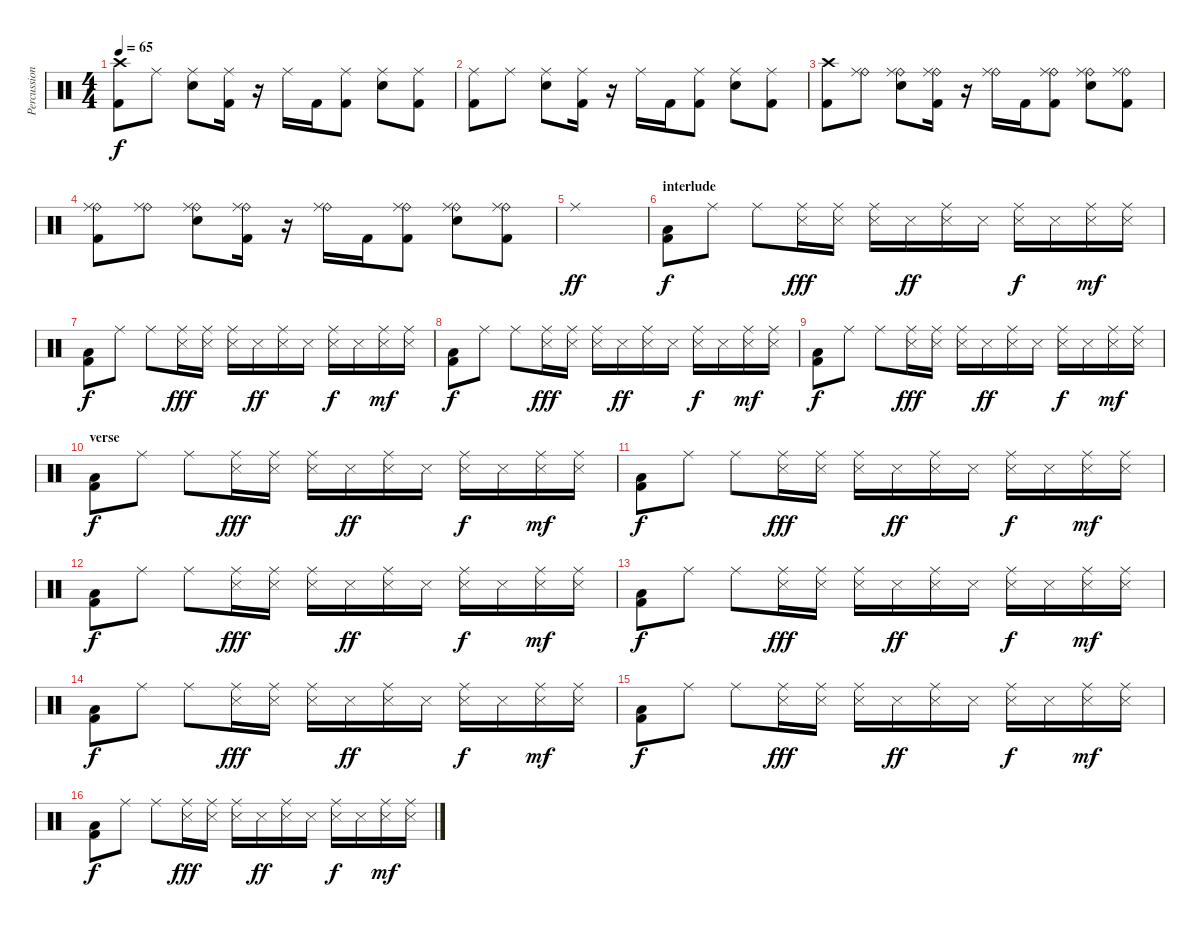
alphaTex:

\track ("Percussion" "Percussion") {instrument percussion}
\staff {score}
\articulation defaults
\ts (4 4)
\tempo 65
\clef neutral
\ks c
("Crash high (hit)" "Kick (hit) 2").8{dy f} "Ride (middle)".8 ("Ride (middle)" "Electric Snare (hit)").8 ("Ride (middle)" "Kick (hit) 2").16 r.16 "Ride (middle)".16 "Kick (hit) 2".16 ("Ride (middle)" "Kick (hit) 2").8 ("Ride (middle)" "Electric Snare (hit)").8 ("Ride (middle)" "Kick (hit) 2").8 |
("Ride (middle)" "Kick (hit) 2").8 "Ride (middle)".8 ("Ride (middle)" "Electric Snare (hit)").8 ("Ride (middle)" "Kick (hit) 2").16 r.16 "Ride (middle)".16 "Kick (hit) 2".16 ("Ride (middle)" "Kick (hit) 2").8 ("Ride (middle)" "Electric Snare (hit)").8 ("Ride (middle)" "Kick (hit) 2").8 |
("Crash high (hit)" "Kick (hit) 2").8 ("Ride (bell)" "Ride (middle)").8 ("Ride (bell)" "Ride (middle)" "Electric Snare (hit)").8 ("Ride (bell)" "Ride (middle)" "Kick (hit) 2").16 r.16 ("Ride (bell)" "Ride (middle)").16 "Kick (hit) 2".16 ("Ride (bell)" "Ride (middle)" "Kick (hit) 2").8 ("Ride (bell)" "Ride (middle)" "Electric Snare (hit)").8 ("Ride (bell)" "Ride (middle)" "Kick (hit) 2").8 |
("Ride (bell)" "Ride (middle)" "Kick (hit) 2").8 ("Ride (bell)" "Ride (middle)").8 ("Ride (bell)" "Ride (middle)" "Electric Snare (hit)").8 ("Ride (bell)" "Ride (middle)" "Kick (hit) 2").16 r.16 ("Ride (bell)" "Ride (middle)").16 "Kick (hit) 2".16 ("Ride (bell)" "Ride (middle)" "Kick (hit) 2").8 ("Ride (bell)" "Ride (middle)" "Electric Snare (hit)").8 ("Ride (bell)" "Ride (middle)" "Kick (hit) 2").8 |
"Ride (middle)".1{dy ff} |
\section ("" "interlude")
("Kick (hit) 2" "Low Floor Tom (hit)").8{dy f volume 11} "Ride (middle)".8 "Ride (middle)".8 ("Ride (middle)" "Snare (side stick) 3").16{dy fff} ("Ride (middle)" "Snare (side stick) 3").16 ("Ride (middle)" "Snare (side stick) 3").16 "Snare (side stick) 3".16{dy ff} ("Ride (middle)" "Snare (side stick) 3").16 "Snare (side stick) 3".16 ("Ride (middle)" "Snare (side stick) 3").16{dy f} "Snare (side stick) 3".16 ("Ride (middle)" "Snare (side stick) 3").16{dy mf} ("Ride (middle)" "Snare (side stick) 3").16 |
("Kick (hit) 2" "Low Floor Tom (hit)").8{dy f} "Ride (middle)".8 "Ride (middle)".8 ("Ride (middle)" "Snare (side stick) 3").16{dy fff} ("Ride (middle)" "Snare (side stick) 3").16 ("Ride (middle)" "Snare (side stick) 3").16 "Snare (side stick) 3".16{dy ff} ("Ride (middle)" "Snare (side stick) 3").16 "Snare (side stick) 3".16 ("Ride (middle)" "Snare (side stick) 3").16{dy f} "Snare (side stick) 3".16 ("Ride (middle)" "Snare (side stick) 3").16{dy mf} ("Ride (middle)" "Snare (side stick) 3").16 |
("Kick (hit) 2" "Low Floor Tom (hit)").8{dy f} "Ride (middle)".8 "Ride (middle)".8 ("Ride (middle)" "Snare (side stick) 3").16{dy fff} ("Ride (middle)" "Snare (side stick) 3").16 ("Ride (middle)" "Snare (side stick) 3").16 "Snare (side stick) 3".16{dy ff} ("Ride (middle)" "Snare (side stick) 3").16 "Snare (side stick) 3".16 ("Ride (middle)" "Snare (side stick) 3").16{dy f} "Snare (side stick) 3".16 ("Ride (middle)" "Snare (side stick) 3").16{dy mf} ("Ride (middle)" "Snare (side stick) 3").16 |
("Kick (hit) 2" "Low Floor Tom (hit)").8{dy f} "Ride (middle)".8 "Ride (middle)".8 ("Ride (middle)" "Snare (side stick) 3").16{dy fff} ("Ride (middle)" "Snare (side stick) 3").16 ("Ride (middle)" "Snare (side stick) 3").16 "Snare (side stick) 3".16{dy ff} ("Ride (middle)" "Snare (side stick) 3").16 "Snare (side stick) 3".16 ("Ride (middle)" "Snare (side stick) 3").16{dy f} "Snare (side stick) 3".16 ("Ride (middle)" "Snare (side stick) 3").16{dy mf} ("Ride (middle)" "Snare (side stick) 3").16 |
\section ("" "verse")
("Kick (hit) 2" "Low Floor Tom (hit)").8{dy f} "Ride (middle)".8 "Ride (middle)".8 ("Ride (middle)" "Snare (side stick) 3").16{dy fff} ("Ride (middle)" "Snare (side stick) 3").16 ("Ride (middle)" "Snare (side stick) 3").16 "Snare (side stick) 3".16{dy ff} ("Ride (middle)" "Snare (side stick) 3").16 "Snare (side stick) 3".16 ("Ride (middle)" "Snare (side stick) 3").16{dy f} "Snare (side stick) 3".16 ("Ride (middle)" "Snare (side stick) 3").16{dy mf} ("Ride (middle)" "Snare (side stick) 3").16 |
("Kick (hit) 2" "Low Floor Tom (hit)").8{dy f} "Ride (middle)".8 "Ride (middle)".8 ("Ride (middle)" "Snare (side stick) 3").16{dy fff} ("Ride (middle)" "Snare (side stick) 3").16 ("Ride (middle)" "Snare (side stick) 3").16 "Snare (side stick) 3".16{dy ff} ("Ride (middle)" "Snare (side stick) 3").16 "Snare (side stick) 3".16 ("Ride (middle)" "Snare (side stick) 3").16{dy f} "Snare (side stick) 3".16 ("Ride (middle)" "Snare (side stick) 3").16{dy mf} ("Ride (middle)" "Snare (side stick) 3").16 |
("Kick (hit) 2" "Low Floor Tom (hit)").8{dy f} "Ride (middle)".8 "Ride (middle)".8 ("Ride (middle)" "Snare (side stick) 3").16{dy fff} ("Ride (middle)" "Snare (side stick) 3").16 ("Ride (middle)" "Snare (side stick) 3").16 "Snare (side stick) 3".16{dy ff} ("Ride (middle)" "Snare (side stick) 3").16 "Snare (side stick) 3".16 ("Ride (middle)" "Snare (side stick) 3").16{dy f} "Snare (side stick) 3".16 ("Ride (middle)" "Snare (side stick) 3").16{dy mf} ("Ride (middle)" "Snare (side stick) 3").16 |
("Kick (hit) 2" "Low Floor Tom (hit)").8{dy f} "Ride (middle)".8 "Ride (middle)".8 ("Ride (middle)" "Snare (side stick) 3").16{dy fff} ("Ride (middle)" "Snare (side stick) 3").16 ("Ride (middle)" "Snare (side stick) 3").16 "Snare (side stick) 3".16{dy ff} ("Ride (middle)" "Snare (side stick) 3").16 "Snare (side stick) 3".16 ("Ride (middle)" "Snare (side stick) 3").16{dy f} "Snare (side stick) 3".16 ("Ride (middle)" "Snare (side stick) 3").16{dy mf} ("Ride (middle)" "Snare (side stick) 3").16 |
("Kick (hit) 2" "Low Floor Tom (hit)").8{dy f} "Ride (middle)".8 "Ride (middle)".8 ("Ride (middle)" "Snare (side stick) 3").16{dy fff} ("Ride (middle)" "Snare (side stick) 3").16 ("Ride (middle)" "Snare (side stick) 3").16 "Snare (side stick) 3".16{dy ff} ("Ride (middle)" "Snare (side stick) 3").16 "Snare (side stick) 3".16 ("Ride (middle)" "Snare (side stick) 3").16{dy f} "Snare (side stick) 3".16 ("Ride (middle)" "Snare (side stick) 3").16{dy mf} ("Ride (middle)" "Snare (side stick) 3").16 |
("Kick (hit) 2" "Low Floor Tom (hit)").8{dy f} "Ride (middle)".8 "Ride (middle)".8 ("Ride (middle)" "Snare (side stick) 3").16{dy fff} ("Ride (middle)" "Snare (side stick) 3").16 ("Ride (middle)" "Snare (side stick) 3").16 "Snare (side stick) 3".16{dy ff} ("Ride (middle)" "Snare (side stick) 3").16 "Snare (side stick) 3".16 ("Ride (middle)" "Snare (side stick) 3").16{dy f} "Snare (side stick) 3".16 ("Ride (middle)" "Snare (side stick) 3").16{dy mf} ("Ride (middle)" "Snare (side stick) 3").16 |
("Kick (hit) 2" "Low Floor Tom (hit)").8{dy f} "Ride (middle)".8 "Ride (middle)".8 ("Ride (middle)" "Snare (side stick) 3").16{dy fff} ("Ride (middle)" "Snare (side stick) 3").16 ("Ride (middle)" "Snare (side stick) 3").16 "Snare (side stick) 3".16{dy ff} ("Ride (middle)" "Snare (side stick) 3").16 "Snare (side stick) 3".16 ("Ride (middle)" "Snare (side stick) 3").16{dy f} "Snare (side stick) 3".16 ("Ride (middle)" "Snare (side stick) 3").16{dy mf} ("Ride (middle)" "Snare (side stick) 3").16
